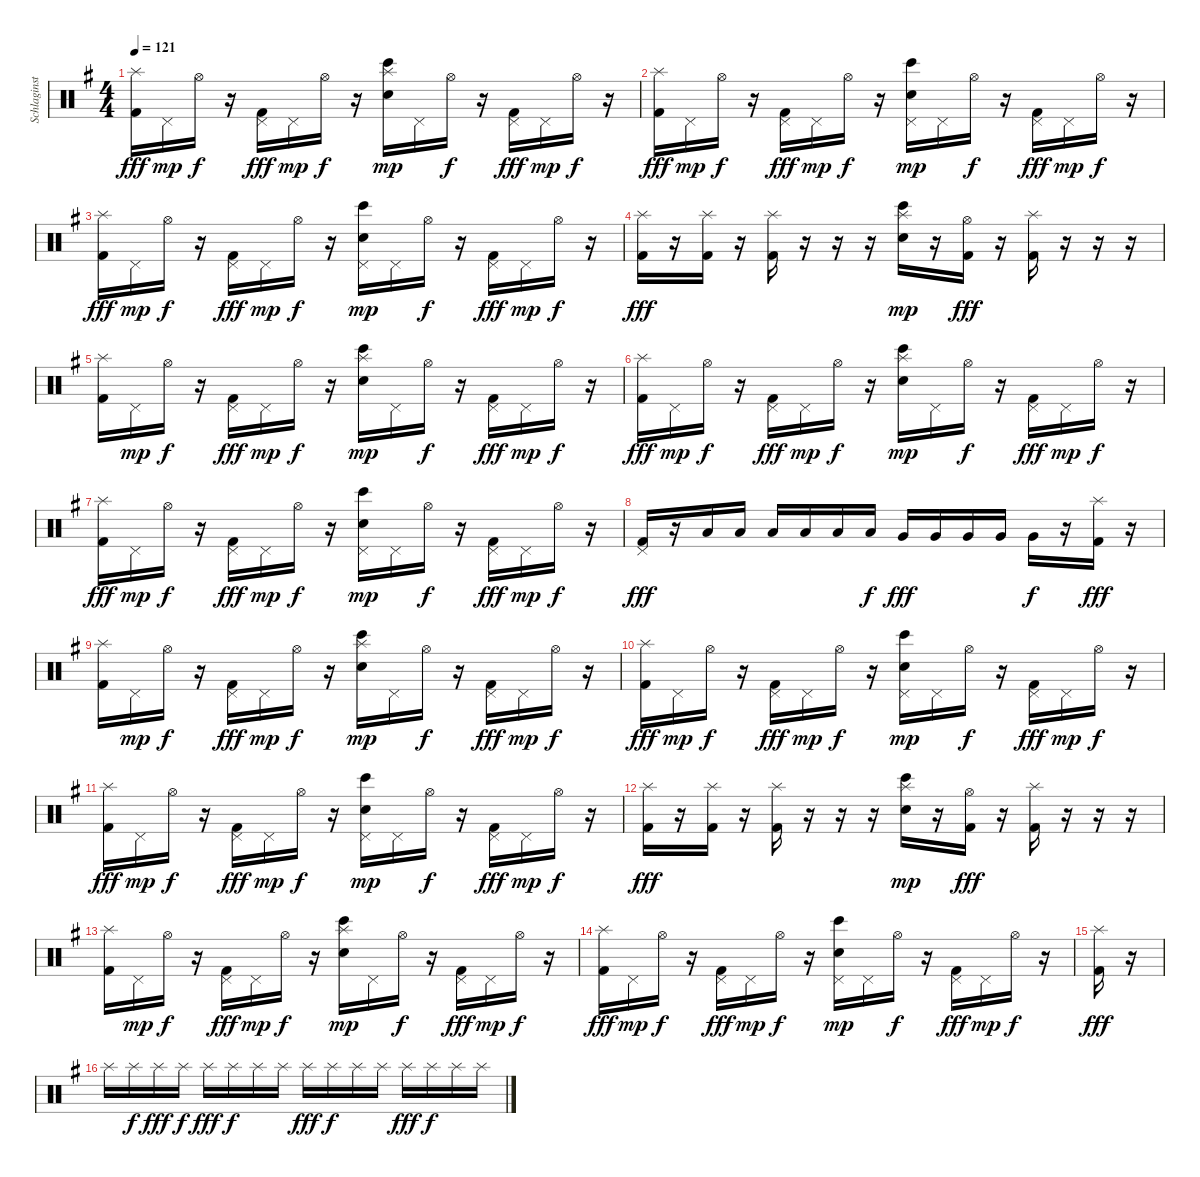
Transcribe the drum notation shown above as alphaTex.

\track ("Schlaginstrumente - Auswahl" "Schlaginst") {instrument percussion}
\staff {score}
\articulation defaults
\ts (4 4)
\tempo 121
\clef neutral
\ks g
("Splash (hit)" "Kick (hit) 2").16{dy fff} "Pedal Hi-Hat (hit)".16{dy mp} "Hi-Hat (open)".16{dy f} r.16 ("Pedal Hi-Hat (hit)" "Kick (hit) 2").16{dy fff} "Pedal Hi-Hat (hit)".16{dy mp} "Hi-Hat (open)".16{dy f} r.16 ("Bongo High (hit)" "Splash (hit)" "Electric Snare (hit)").16{dy mp} "Pedal Hi-Hat (hit)".16 "Hi-Hat (open)".16{dy f} r.16 ("Pedal Hi-Hat (hit)" "Kick (hit) 2").16{dy fff} "Pedal Hi-Hat (hit)".16{dy mp} "Hi-Hat (open)".16{dy f} r.16 |
("Splash (hit)" "Kick (hit) 2").16{dy fff} "Pedal Hi-Hat (hit)".16{dy mp} "Hi-Hat (open)".16{dy f} r.16 ("Pedal Hi-Hat (hit)" "Kick (hit) 2").16{dy fff} "Pedal Hi-Hat (hit)".16{dy mp} "Hi-Hat (open)".16{dy f} r.16 ("Bongo High (hit)" "Pedal Hi-Hat (hit)" "Electric Snare (hit)").16{dy mp} "Pedal Hi-Hat (hit)".16 "Hi-Hat (open)".16{dy f} r.16 ("Pedal Hi-Hat (hit)" "Kick (hit) 2").16{dy fff} "Pedal Hi-Hat (hit)".16{dy mp} "Hi-Hat (open)".16{dy f} r.16 |
("Splash (hit)" "Kick (hit) 2").16{dy fff} "Pedal Hi-Hat (hit)".16{dy mp} "Hi-Hat (open)".16{dy f} r.16 ("Pedal Hi-Hat (hit)" "Kick (hit) 2").16{dy fff} "Pedal Hi-Hat (hit)".16{dy mp} "Hi-Hat (open)".16{dy f} r.16 ("Bongo High (hit)" "Pedal Hi-Hat (hit)" "Electric Snare (hit)").16{dy mp} "Pedal Hi-Hat (hit)".16 "Hi-Hat (open)".16{dy f} r.16 ("Pedal Hi-Hat (hit)" "Kick (hit) 2").16{dy fff} "Pedal Hi-Hat (hit)".16{dy mp} "Hi-Hat (open)".16{dy f} r.16 |
("Splash (hit)" "Kick (hit) 2").16{dy fff} r.16 ("Splash (hit)" "Kick (hit) 2").16 r.16 ("Splash (hit)" "Kick (hit) 2").16 r.16 r.16 r.16 ("Bongo High (hit)" "Splash (hit)" "Electric Snare (hit)").16{dy mp} r.16 ("Hi-Hat (open)" "Kick (hit) 2").16{dy fff} r.16 ("Splash (hit)" "Kick (hit) 2").16 r.16 r.16 r.16 |
("Splash (hit)" "Kick (hit) 2").16 "Pedal Hi-Hat (hit)".16{dy mp} "Hi-Hat (open)".16{dy f} r.16 ("Pedal Hi-Hat (hit)" "Kick (hit) 2").16{dy fff} "Pedal Hi-Hat (hit)".16{dy mp} "Hi-Hat (open)".16{dy f} r.16 ("Bongo High (hit)" "Splash (hit)" "Electric Snare (hit)").16{dy mp} "Pedal Hi-Hat (hit)".16 "Hi-Hat (open)".16{dy f} r.16 ("Pedal Hi-Hat (hit)" "Kick (hit) 2").16{dy fff} "Pedal Hi-Hat (hit)".16{dy mp} "Hi-Hat (open)".16{dy f} r.16 |
("Splash (hit)" "Kick (hit) 2").16{dy fff} "Pedal Hi-Hat (hit)".16{dy mp} "Hi-Hat (open)".16{dy f} r.16 ("Pedal Hi-Hat (hit)" "Kick (hit) 2").16{dy fff} "Pedal Hi-Hat (hit)".16{dy mp} "Hi-Hat (open)".16{dy f} r.16 ("Bongo High (hit)" "Splash (hit)" "Electric Snare (hit)").16{dy mp} "Pedal Hi-Hat (hit)".16 "Hi-Hat (open)".16{dy f} r.16 ("Pedal Hi-Hat (hit)" "Kick (hit) 2").16{dy fff} "Pedal Hi-Hat (hit)".16{dy mp} "Hi-Hat (open)".16{dy f} r.16 |
("Splash (hit)" "Kick (hit) 2").16{dy fff} "Pedal Hi-Hat (hit)".16{dy mp} "Hi-Hat (open)".16{dy f} r.16 ("Pedal Hi-Hat (hit)" "Kick (hit) 2").16{dy fff} "Pedal Hi-Hat (hit)".16{dy mp} "Hi-Hat (open)".16{dy f} r.16 ("Bongo High (hit)" "Pedal Hi-Hat (hit)" "Electric Snare (hit)").16{dy mp} "Pedal Hi-Hat (hit)".16 "Hi-Hat (open)".16{dy f} r.16 ("Pedal Hi-Hat (hit)" "Kick (hit) 2").16{dy fff} "Pedal Hi-Hat (hit)".16{dy mp} "Hi-Hat (open)".16{dy f} r.16 |
("Pedal Hi-Hat (hit)" "Kick (hit) 2").16{dy fff} r.16 "Low Tom (hit)".16 "Low Tom (hit)".16 "Low Tom (hit)".16 "Low Tom (hit)".16 "Low Tom (hit)".16 "Low Tom (hit)".16{dy f} "Very Low Tom (hit)".16{dy fff} "Very Low Tom (hit)".16 "Very Low Tom (hit)".16 "Very Low Tom (hit)".16 "Very Low Tom (hit)".16{dy f} r.16 ("Splash (hit)" "Kick (hit) 2").16{dy fff} r.16 |
("Splash (hit)" "Kick (hit) 2").16 "Pedal Hi-Hat (hit)".16{dy mp} "Hi-Hat (open)".16{dy f} r.16 ("Pedal Hi-Hat (hit)" "Kick (hit) 2").16{dy fff} "Pedal Hi-Hat (hit)".16{dy mp} "Hi-Hat (open)".16{dy f} r.16 ("Bongo High (hit)" "Splash (hit)" "Electric Snare (hit)").16{dy mp} "Pedal Hi-Hat (hit)".16 "Hi-Hat (open)".16{dy f} r.16 ("Pedal Hi-Hat (hit)" "Kick (hit) 2").16{dy fff} "Pedal Hi-Hat (hit)".16{dy mp} "Hi-Hat (open)".16{dy f} r.16 |
("Splash (hit)" "Kick (hit) 2").16{dy fff} "Pedal Hi-Hat (hit)".16{dy mp} "Hi-Hat (open)".16{dy f} r.16 ("Pedal Hi-Hat (hit)" "Kick (hit) 2").16{dy fff} "Pedal Hi-Hat (hit)".16{dy mp} "Hi-Hat (open)".16{dy f} r.16 ("Bongo High (hit)" "Pedal Hi-Hat (hit)" "Electric Snare (hit)").16{dy mp} "Pedal Hi-Hat (hit)".16 "Hi-Hat (open)".16{dy f} r.16 ("Pedal Hi-Hat (hit)" "Kick (hit) 2").16{dy fff} "Pedal Hi-Hat (hit)".16{dy mp} "Hi-Hat (open)".16{dy f} r.16 |
("Splash (hit)" "Kick (hit) 2").16{dy fff} "Pedal Hi-Hat (hit)".16{dy mp} "Hi-Hat (open)".16{dy f} r.16 ("Pedal Hi-Hat (hit)" "Kick (hit) 2").16{dy fff} "Pedal Hi-Hat (hit)".16{dy mp} "Hi-Hat (open)".16{dy f} r.16 ("Bongo High (hit)" "Pedal Hi-Hat (hit)" "Electric Snare (hit)").16{dy mp} "Pedal Hi-Hat (hit)".16 "Hi-Hat (open)".16{dy f} r.16 ("Pedal Hi-Hat (hit)" "Kick (hit) 2").16{dy fff} "Pedal Hi-Hat (hit)".16{dy mp} "Hi-Hat (open)".16{dy f} r.16 |
("Splash (hit)" "Kick (hit) 2").16{dy fff} r.16 ("Splash (hit)" "Kick (hit) 2").16 r.16 ("Splash (hit)" "Kick (hit) 2").16 r.16 r.16 r.16 ("Bongo High (hit)" "Splash (hit)" "Electric Snare (hit)").16{dy mp} r.16 ("Hi-Hat (open)" "Kick (hit) 2").16{dy fff} r.16 ("Splash (hit)" "Kick (hit) 2").16 r.16 r.16 r.16 |
("Splash (hit)" "Kick (hit) 2").16 "Pedal Hi-Hat (hit)".16{dy mp} "Hi-Hat (open)".16{dy f} r.16 ("Pedal Hi-Hat (hit)" "Kick (hit) 2").16{dy fff} "Pedal Hi-Hat (hit)".16{dy mp} "Hi-Hat (open)".16{dy f} r.16 ("Bongo High (hit)" "Splash (hit)" "Electric Snare (hit)").16{dy mp} "Pedal Hi-Hat (hit)".16 "Hi-Hat (open)".16{dy f} r.16 ("Pedal Hi-Hat (hit)" "Kick (hit) 2").16{dy fff} "Pedal Hi-Hat (hit)".16{dy mp} "Hi-Hat (open)".16{dy f} r.16 |
("Splash (hit)" "Kick (hit) 2").16{dy fff} "Pedal Hi-Hat (hit)".16{dy mp} "Hi-Hat (open)".16{dy f} r.16 ("Pedal Hi-Hat (hit)" "Kick (hit) 2").16{dy fff} "Pedal Hi-Hat (hit)".16{dy mp} "Hi-Hat (open)".16{dy f} r.16 ("Bongo High (hit)" "Pedal Hi-Hat (hit)" "Electric Snare (hit)").16{dy mp} "Pedal Hi-Hat (hit)".16 "Hi-Hat (open)".16{dy f} r.16 ("Pedal Hi-Hat (hit)" "Kick (hit) 2").16{dy fff} "Pedal Hi-Hat (hit)".16{dy mp} "Hi-Hat (open)".16{dy f} r.16 |
("Splash (hit)" "Kick (hit) 2").16{dy fff} r.16 |
"Splash (hit)".16 "Splash (hit)".16{dy f} "Splash (hit)".16{dy fff} "Splash (hit)".16{dy f} "Splash (hit)".16{dy fff} "Splash (hit)".16{dy f} "Splash (hit)".16 "Splash (hit)".16 "Splash (hit)".16{dy fff} "Splash (hit)".16{dy f} "Splash (hit)".16 "Splash (hit)".16 "Splash (hit)".16{dy fff} "Splash (hit)".16{dy f} "Splash (hit)".16 "Splash (hit)".16
